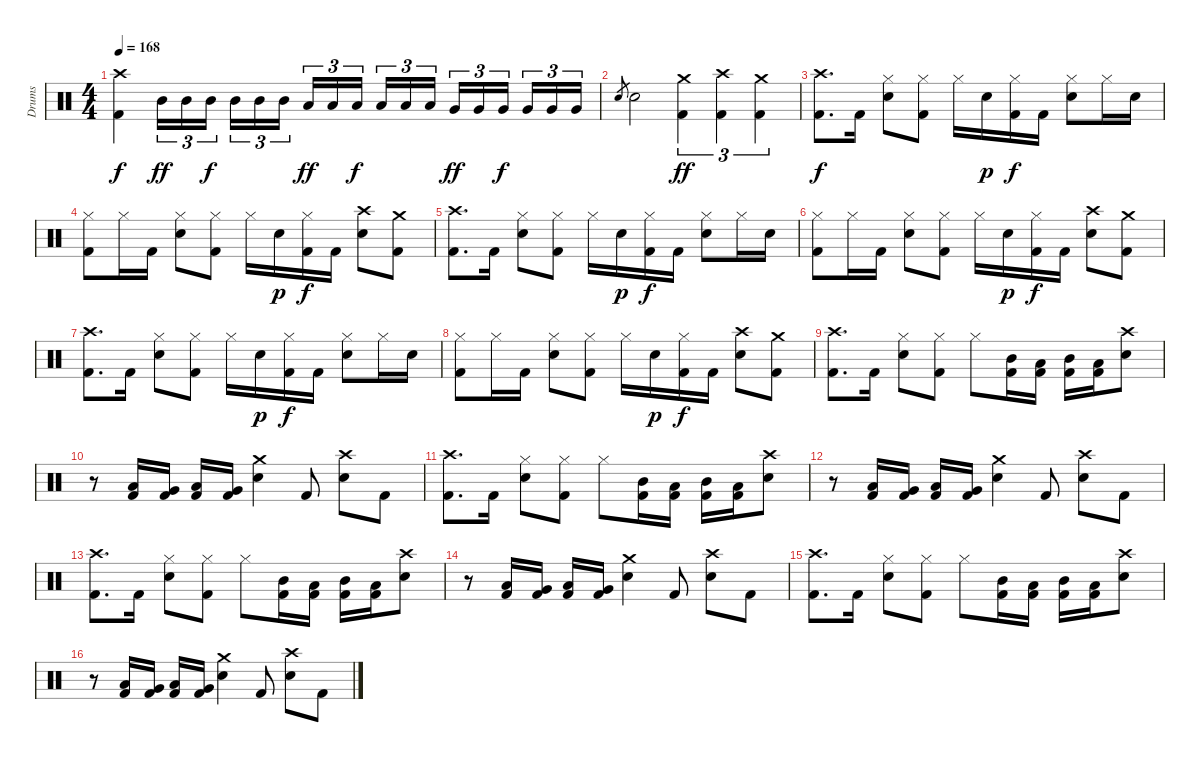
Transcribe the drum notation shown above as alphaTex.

\track ("Drums" "Drums") {instrument percussion}
\staff {score}
\articulation defaults
\ts (4 4)
\tempo 168
\clef neutral
\ks c
("Crash high (hit)" "Kick (hit) 2").4{dy f} "Mid Tom (hit)".16{tu (3 2) dy ff} "Mid Tom (hit)".16{tu (3 2)} "Mid Tom (hit)".16{tu (3 2) dy f beam splitsecondary} "Mid Tom (hit)".16{tu (3 2)} "Mid Tom (hit)".16{tu (3 2)} "Mid Tom (hit)".16{tu (3 2)} "Low Tom (hit)".16{tu (3 2) dy ff} "Low Tom (hit)".16{tu (3 2)} "Low Tom (hit)".16{tu (3 2) dy f beam splitsecondary} "Low Tom (hit)".16{tu (3 2)} "Low Tom (hit)".16{tu (3 2)} "Low Tom (hit)".16{tu (3 2)} "Very Low Tom (hit)".16{tu (3 2) dy ff} "Very Low Tom (hit)".16{tu (3 2)} "Very Low Tom (hit)".16{tu (3 2) dy f beam splitsecondary} "Very Low Tom (hit)".16{tu (3 2)} "Very Low Tom (hit)".16{tu (3 2)} "Very Low Tom (hit)".16{tu (3 2)} |
"Snare (hit) 2".8{gr} "Snare (hit) 2".2 ("Crash medium (hit)" "Kick (hit) 2").4{tu (3 2) dy ff} ("Crash high (hit)" "Kick (hit) 2").4{tu (3 2)} ("Crash medium (hit)" "Kick (hit) 2").4{tu (3 2)} |
("Crash high (hit)" "Kick (hit) 2").8{d dy f} "Kick (hit) 2".16 ("Hi-Hat (closed)" "Snare (hit) 2").8 ("Hi-Hat (closed)" "Kick (hit) 2").8 "Hi-Hat (closed)".16 "Snare (hit) 2".16{dy p} ("Hi-Hat (closed)" "Kick (hit) 2").16{dy f} "Kick (hit) 2".16 ("Hi-Hat (closed)" "Snare (hit) 2").8 "Hi-Hat (closed)".16 "Snare (hit) 2".16 |
("Hi-Hat (closed)" "Kick (hit) 2").8 "Hi-Hat (closed)".16 "Kick (hit) 2".16 ("Hi-Hat (closed)" "Snare (hit) 2").8 ("Hi-Hat (closed)" "Kick (hit) 2").8 "Hi-Hat (closed)".16 "Snare (hit) 2".16{dy p} ("Hi-Hat (closed)" "Kick (hit) 2").16{dy f} "Kick (hit) 2".16 ("Crash high (hit)" "Snare (hit) 2").8 ("Crash medium (hit)" "Kick (hit) 2").8 |
("Crash high (hit)" "Kick (hit) 2").8{d} "Kick (hit) 2".16 ("Hi-Hat (closed)" "Snare (hit) 2").8 ("Hi-Hat (closed)" "Kick (hit) 2").8 "Hi-Hat (closed)".16 "Snare (hit) 2".16{dy p} ("Hi-Hat (closed)" "Kick (hit) 2").16{dy f} "Kick (hit) 2".16 ("Hi-Hat (closed)" "Snare (hit) 2").8 "Hi-Hat (closed)".16 "Snare (hit) 2".16 |
("Hi-Hat (closed)" "Kick (hit) 2").8 "Hi-Hat (closed)".16 "Kick (hit) 2".16 ("Hi-Hat (closed)" "Snare (hit) 2").8 ("Hi-Hat (closed)" "Kick (hit) 2").8 "Hi-Hat (closed)".16 "Snare (hit) 2".16{dy p} ("Hi-Hat (closed)" "Kick (hit) 2").16{dy f} "Kick (hit) 2".16 ("Crash high (hit)" "Snare (hit) 2").8 ("Crash medium (hit)" "Kick (hit) 2").8 |
("Crash high (hit)" "Kick (hit) 2").8{d} "Kick (hit) 2".16 ("Hi-Hat (closed)" "Snare (hit) 2").8 ("Hi-Hat (closed)" "Kick (hit) 2").8 "Hi-Hat (closed)".16 "Snare (hit) 2".16{dy p} ("Hi-Hat (closed)" "Kick (hit) 2").16{dy f} "Kick (hit) 2".16 ("Hi-Hat (closed)" "Snare (hit) 2").8 "Hi-Hat (closed)".16 "Snare (hit) 2".16 |
("Hi-Hat (closed)" "Kick (hit) 2").8 "Hi-Hat (closed)".16 "Kick (hit) 2".16 ("Hi-Hat (closed)" "Snare (hit) 2").8 ("Hi-Hat (closed)" "Kick (hit) 2").8 "Hi-Hat (closed)".16 "Snare (hit) 2".16{dy p} ("Hi-Hat (closed)" "Kick (hit) 2").16{dy f} "Kick (hit) 2".16 ("Crash high (hit)" "Snare (hit) 2").8 ("Crash medium (hit)" "Kick (hit) 2").8 |
("Crash high (hit)" "Kick (hit) 2").8{d} "Kick (hit) 2".16 ("Hi-Hat (closed)" "Snare (hit) 2").8 ("Hi-Hat (closed)" "Kick (hit) 2").8 "Hi-Hat (closed)".8 ("Mid Tom (hit)" "Kick (hit) 2").16 ("Low Tom (hit)" "Kick (hit) 2").16 ("Mid Tom (hit)" "Kick (hit) 2").16 ("Low Tom (hit)" "Kick (hit) 2").16 ("Crash high (hit)" "Snare (hit) 2").8 |
r.8 ("Low Tom (hit)" "Kick (hit) 2").16 ("Very Low Tom (hit)" "Kick (hit) 2").16 ("Low Tom (hit)" "Kick (hit) 2").16 ("Very Low Tom (hit)" "Kick (hit) 2").16 ("Crash medium (hit)" "Snare (hit) 2").4 "Kick (hit) 2".8 ("Crash high (hit)" "Snare (hit) 2").8 "Kick (hit) 2".8 |
("Crash high (hit)" "Kick (hit) 2").8{d} "Kick (hit) 2".16 ("Hi-Hat (closed)" "Snare (hit) 2").8 ("Hi-Hat (closed)" "Kick (hit) 2").8 "Hi-Hat (closed)".8 ("Mid Tom (hit)" "Kick (hit) 2").16 ("Low Tom (hit)" "Kick (hit) 2").16 ("Mid Tom (hit)" "Kick (hit) 2").16 ("Low Tom (hit)" "Kick (hit) 2").16 ("Crash high (hit)" "Snare (hit) 2").8 |
r.8 ("Low Tom (hit)" "Kick (hit) 2").16 ("Very Low Tom (hit)" "Kick (hit) 2").16 ("Low Tom (hit)" "Kick (hit) 2").16 ("Very Low Tom (hit)" "Kick (hit) 2").16 ("Crash medium (hit)" "Snare (hit) 2").4 "Kick (hit) 2".8 ("Crash high (hit)" "Snare (hit) 2").8 "Kick (hit) 2".8 |
("Crash high (hit)" "Kick (hit) 2").8{d} "Kick (hit) 2".16 ("Hi-Hat (closed)" "Snare (hit) 2").8 ("Hi-Hat (closed)" "Kick (hit) 2").8 "Hi-Hat (closed)".8 ("Mid Tom (hit)" "Kick (hit) 2").16 ("Low Tom (hit)" "Kick (hit) 2").16 ("Mid Tom (hit)" "Kick (hit) 2").16 ("Low Tom (hit)" "Kick (hit) 2").16 ("Crash high (hit)" "Snare (hit) 2").8 |
r.8 ("Low Tom (hit)" "Kick (hit) 2").16 ("Very Low Tom (hit)" "Kick (hit) 2").16 ("Low Tom (hit)" "Kick (hit) 2").16 ("Very Low Tom (hit)" "Kick (hit) 2").16 ("Crash medium (hit)" "Snare (hit) 2").4 "Kick (hit) 2".8 ("Crash high (hit)" "Snare (hit) 2").8 "Kick (hit) 2".8 |
("Crash high (hit)" "Kick (hit) 2").8{d} "Kick (hit) 2".16 ("Hi-Hat (closed)" "Snare (hit) 2").8 ("Hi-Hat (closed)" "Kick (hit) 2").8 "Hi-Hat (closed)".8 ("Mid Tom (hit)" "Kick (hit) 2").16 ("Low Tom (hit)" "Kick (hit) 2").16 ("Mid Tom (hit)" "Kick (hit) 2").16 ("Low Tom (hit)" "Kick (hit) 2").16 ("Crash high (hit)" "Snare (hit) 2").8 |
r.8 ("Low Tom (hit)" "Kick (hit) 2").16 ("Very Low Tom (hit)" "Kick (hit) 2").16 ("Low Tom (hit)" "Kick (hit) 2").16 ("Very Low Tom (hit)" "Kick (hit) 2").16 ("Crash medium (hit)" "Snare (hit) 2").4 "Kick (hit) 2".8 ("Crash high (hit)" "Snare (hit) 2").8 "Kick (hit) 2".8
